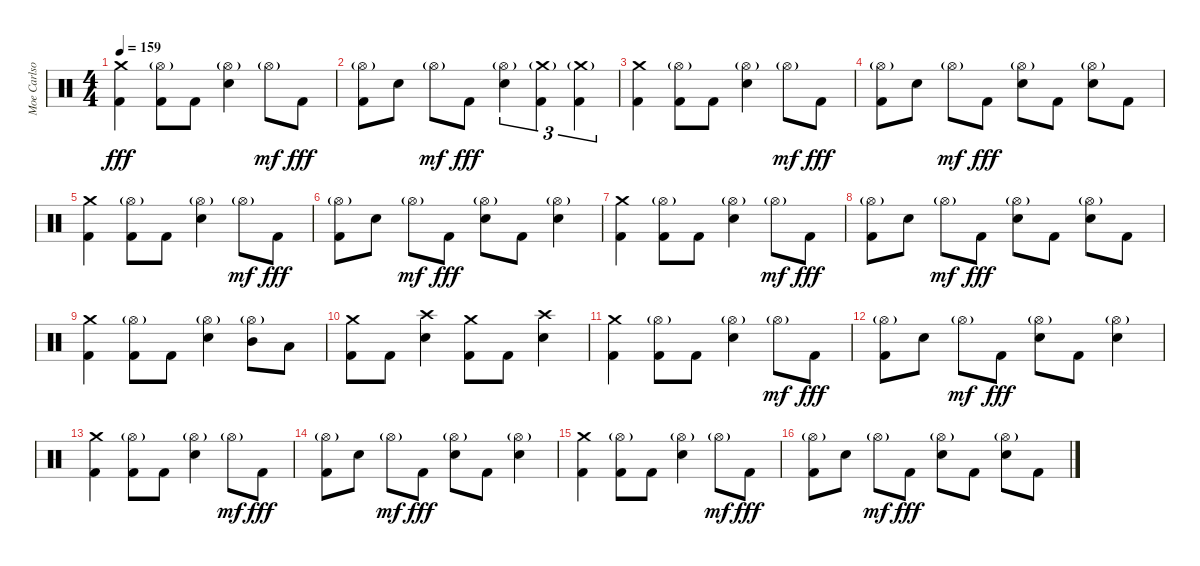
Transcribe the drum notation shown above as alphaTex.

\track ("Moe Carlson" "Moe Carlso") {instrument percussion}
\staff {score}
\articulation defaults
\ts (4 4)
\tempo 159
\clef neutral
\ks c
("Crash medium (hit)" "Kick (hit) 2").4{dy fff} ("Hi-Hat (open)"{g} "Kick (hit) 2").8 "Kick (hit) 2".8 ("Hi-Hat (open)"{g} "Electric Snare (hit)").4 "Hi-Hat (open)"{g}.8{dy mf} "Kick (hit) 2".8{dy fff} |
("Hi-Hat (open)"{g} "Kick (hit) 2").8 "Electric Snare (hit)".8 "Hi-Hat (open)"{g}.8{dy mf} "Kick (hit) 2".8{dy fff} ("Hi-Hat (open)"{g} "Electric Snare (hit)").4{tu (3 2)} ("Crash medium (hit)"{g} "Kick (hit) 2").4{tu (3 2)} ("Crash medium (hit)"{g} "Kick (hit) 2").4{tu (3 2)} |
("Crash medium (hit)" "Kick (hit) 2").4 ("Hi-Hat (open)"{g} "Kick (hit) 2").8 "Kick (hit) 2".8 ("Hi-Hat (open)"{g} "Electric Snare (hit)").4 "Hi-Hat (open)"{g}.8{dy mf} "Kick (hit) 2".8{dy fff} |
("Hi-Hat (open)"{g} "Kick (hit) 2").8 "Electric Snare (hit)".8 "Hi-Hat (open)"{g}.8{dy mf} "Kick (hit) 2".8{dy fff} ("Hi-Hat (open)"{g} "Electric Snare (hit)").8 "Kick (hit) 2".8 ("Hi-Hat (open)"{g} "Electric Snare (hit)").8 "Kick (hit) 2".8 |
("Crash medium (hit)" "Kick (hit) 2").4 ("Hi-Hat (open)"{g} "Kick (hit) 2").8 "Kick (hit) 2".8 ("Hi-Hat (open)"{g} "Electric Snare (hit)").4 "Hi-Hat (open)"{g}.8{dy mf} "Kick (hit) 2".8{dy fff} |
("Hi-Hat (open)"{g} "Kick (hit) 2").8 "Electric Snare (hit)".8 "Hi-Hat (open)"{g}.8{dy mf} "Kick (hit) 2".8{dy fff} ("Hi-Hat (open)"{g} "Electric Snare (hit)").8 "Kick (hit) 2".8 ("Hi-Hat (open)"{g} "Electric Snare (hit)").4 |
("Crash medium (hit)" "Kick (hit) 2").4 ("Hi-Hat (open)"{g} "Kick (hit) 2").8 "Kick (hit) 2".8 ("Hi-Hat (open)"{g} "Electric Snare (hit)").4 "Hi-Hat (open)"{g}.8{dy mf} "Kick (hit) 2".8{dy fff} |
("Hi-Hat (open)"{g} "Kick (hit) 2").8 "Electric Snare (hit)".8 "Hi-Hat (open)"{g}.8{dy mf} "Kick (hit) 2".8{dy fff} ("Hi-Hat (open)"{g} "Electric Snare (hit)").8 "Kick (hit) 2".8 ("Hi-Hat (open)"{g} "Electric Snare (hit)").8 "Kick (hit) 2".8 |
("Crash medium (hit)" "Kick (hit) 2").4 ("Hi-Hat (open)"{g} "Kick (hit) 2").8 "Kick (hit) 2".8 ("Hi-Hat (open)"{g} "Electric Snare (hit)").4 ("Hi-Hat (open)"{g} "Mid Tom (hit)").8 "Low Tom (hit)".8 |
("Crash medium (hit)" "Kick (hit) 2").8 "Kick (hit) 2".8 ("Crash high (hit)" "Electric Snare (hit)").4 ("Crash medium (hit)" "Kick (hit) 2").8 "Kick (hit) 2".8 ("Crash high (hit)" "Electric Snare (hit)").4 |
("Crash medium (hit)" "Kick (hit) 2").4 ("Hi-Hat (open)"{g} "Kick (hit) 2").8 "Kick (hit) 2".8 ("Hi-Hat (open)"{g} "Electric Snare (hit)").4 "Hi-Hat (open)"{g}.8{dy mf} "Kick (hit) 2".8{dy fff} |
("Hi-Hat (open)"{g} "Kick (hit) 2").8 "Electric Snare (hit)".8 "Hi-Hat (open)"{g}.8{dy mf} "Kick (hit) 2".8{dy fff} ("Hi-Hat (open)"{g} "Electric Snare (hit)").8 "Kick (hit) 2".8 ("Hi-Hat (open)"{g} "Electric Snare (hit)").4 |
("Crash medium (hit)" "Kick (hit) 2").4 ("Hi-Hat (open)"{g} "Kick (hit) 2").8 "Kick (hit) 2".8 ("Hi-Hat (open)"{g} "Electric Snare (hit)").4 "Hi-Hat (open)"{g}.8{dy mf} "Kick (hit) 2".8{dy fff} |
("Hi-Hat (open)"{g} "Kick (hit) 2").8 "Electric Snare (hit)".8 "Hi-Hat (open)"{g}.8{dy mf} "Kick (hit) 2".8{dy fff} ("Hi-Hat (open)"{g} "Electric Snare (hit)").8 "Kick (hit) 2".8 ("Hi-Hat (open)"{g} "Electric Snare (hit)").4 |
("Crash medium (hit)" "Kick (hit) 2").4 ("Hi-Hat (open)"{g} "Kick (hit) 2").8 "Kick (hit) 2".8 ("Hi-Hat (open)"{g} "Electric Snare (hit)").4 "Hi-Hat (open)"{g}.8{dy mf} "Kick (hit) 2".8{dy fff} |
("Hi-Hat (open)"{g} "Kick (hit) 2").8 "Electric Snare (hit)".8 "Hi-Hat (open)"{g}.8{dy mf} "Kick (hit) 2".8{dy fff} ("Hi-Hat (open)"{g} "Electric Snare (hit)").8 "Kick (hit) 2".8 ("Hi-Hat (open)"{g} "Electric Snare (hit)").8 "Kick (hit) 2".8
